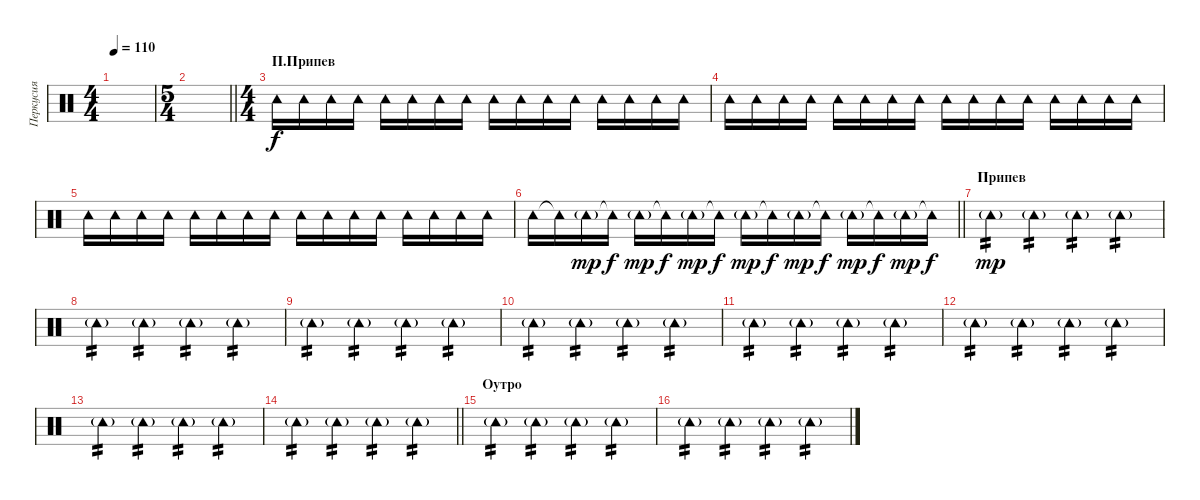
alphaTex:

\track ("Перкусия" "Перкусия") {instrument percussion}
\staff {score}
\articulation defaults
\ts (4 4)
\tempo 110
\clef neutral
\ks c
|
\ts (5 4)
\barLineRight lightlight
|
\ts (4 4)
\section ("" "П.Припев")
"Tambourine (hit)".16{dy f} "Tambourine (hit)".16 "Tambourine (hit)".16 "Tambourine (hit)".16 "Tambourine (hit)".16 "Tambourine (hit)".16 "Tambourine (hit)".16 "Tambourine (hit)".16 "Tambourine (hit)".16 "Tambourine (hit)".16 "Tambourine (hit)".16 "Tambourine (hit)".16 "Tambourine (hit)".16 "Tambourine (hit)".16 "Tambourine (hit)".16 "Tambourine (hit)".16 |
"Tambourine (hit)".16 "Tambourine (hit)".16 "Tambourine (hit)".16 "Tambourine (hit)".16 "Tambourine (hit)".16 "Tambourine (hit)".16 "Tambourine (hit)".16 "Tambourine (hit)".16 "Tambourine (hit)".16 "Tambourine (hit)".16 "Tambourine (hit)".16 "Tambourine (hit)".16 "Tambourine (hit)".16 "Tambourine (hit)".16 "Tambourine (hit)".16 "Tambourine (hit)".16 |
"Tambourine (hit)".16 "Tambourine (hit)".16 "Tambourine (hit)".16 "Tambourine (hit)".16 "Tambourine (hit)".16 "Tambourine (hit)".16 "Tambourine (hit)".16 "Tambourine (hit)".16 "Tambourine (hit)".16 "Tambourine (hit)".16 "Tambourine (hit)".16 "Tambourine (hit)".16 "Tambourine (hit)".16 "Tambourine (hit)".16 "Tambourine (hit)".16 "Tambourine (hit)".16 |
\barLineRight lightlight "Tambourine (hit)".16 "Tambourine (hit)"{t}.16 "Tambourine (hit)"{g}.16{dy mp} "Tambourine (hit)"{t}.16{dy f} "Tambourine (hit)"{g}.16{dy mp} "Tambourine (hit)"{t}.16{dy f} "Tambourine (hit)"{g}.16{dy mp} "Tambourine (hit)"{t}.16{dy f} "Tambourine (hit)"{g}.16{dy mp} "Tambourine (hit)"{t}.16{dy f} "Tambourine (hit)"{g}.16{dy mp} "Tambourine (hit)"{t}.16{dy f} "Tambourine (hit)"{g}.16{dy mp} "Tambourine (hit)"{t}.16{dy f} "Tambourine (hit)"{g}.16{dy mp} "Tambourine (hit)"{t}.16{dy f}
|
\section ("" "Припев")
"Tambourine (hit)"{g}.4{tp 2 dy mp} "Tambourine (hit)"{g}.4{tp 2} "Tambourine (hit)"{g}.4{tp 2} "Tambourine (hit)"{g}.4{tp 2} |
"Tambourine (hit)"{g}.4{tp 2} "Tambourine (hit)"{g}.4{tp 2} "Tambourine (hit)"{g}.4{tp 2} "Tambourine (hit)"{g}.4{tp 2} |
"Tambourine (hit)"{g}.4{tp 2} "Tambourine (hit)"{g}.4{tp 2} "Tambourine (hit)"{g}.4{tp 2} "Tambourine (hit)"{g}.4{tp 2} |
"Tambourine (hit)"{g}.4{tp 2} "Tambourine (hit)"{g}.4{tp 2} "Tambourine (hit)"{g}.4{tp 2} "Tambourine (hit)"{g}.4{tp 2} |
"Tambourine (hit)"{g}.4{tp 2} "Tambourine (hit)"{g}.4{tp 2} "Tambourine (hit)"{g}.4{tp 2} "Tambourine (hit)"{g}.4{tp 2} |
"Tambourine (hit)"{g}.4{tp 2} "Tambourine (hit)"{g}.4{tp 2} "Tambourine (hit)"{g}.4{tp 2} "Tambourine (hit)"{g}.4{tp 2} |
"Tambourine (hit)"{g}.4{tp 2} "Tambourine (hit)"{g}.4{tp 2} "Tambourine (hit)"{g}.4{tp 2} "Tambourine (hit)"{g}.4{tp 2} |
\barLineRight lightlight "Tambourine (hit)"{g}.4{tp 2} "Tambourine (hit)"{g}.4{tp 2} "Tambourine (hit)"{g}.4{tp 2} "Tambourine (hit)"{g}.4{tp 2}
|
\section ("" "Оутро")
"Tambourine (hit)"{g}.4{tp 2} "Tambourine (hit)"{g}.4{tp 2} "Tambourine (hit)"{g}.4{tp 2} "Tambourine (hit)"{g}.4{tp 2} |
"Tambourine (hit)"{g}.4{tp 2} "Tambourine (hit)"{g}.4{tp 2} "Tambourine (hit)"{g}.4{tp 2} "Tambourine (hit)"{g}.4{tp 2}
